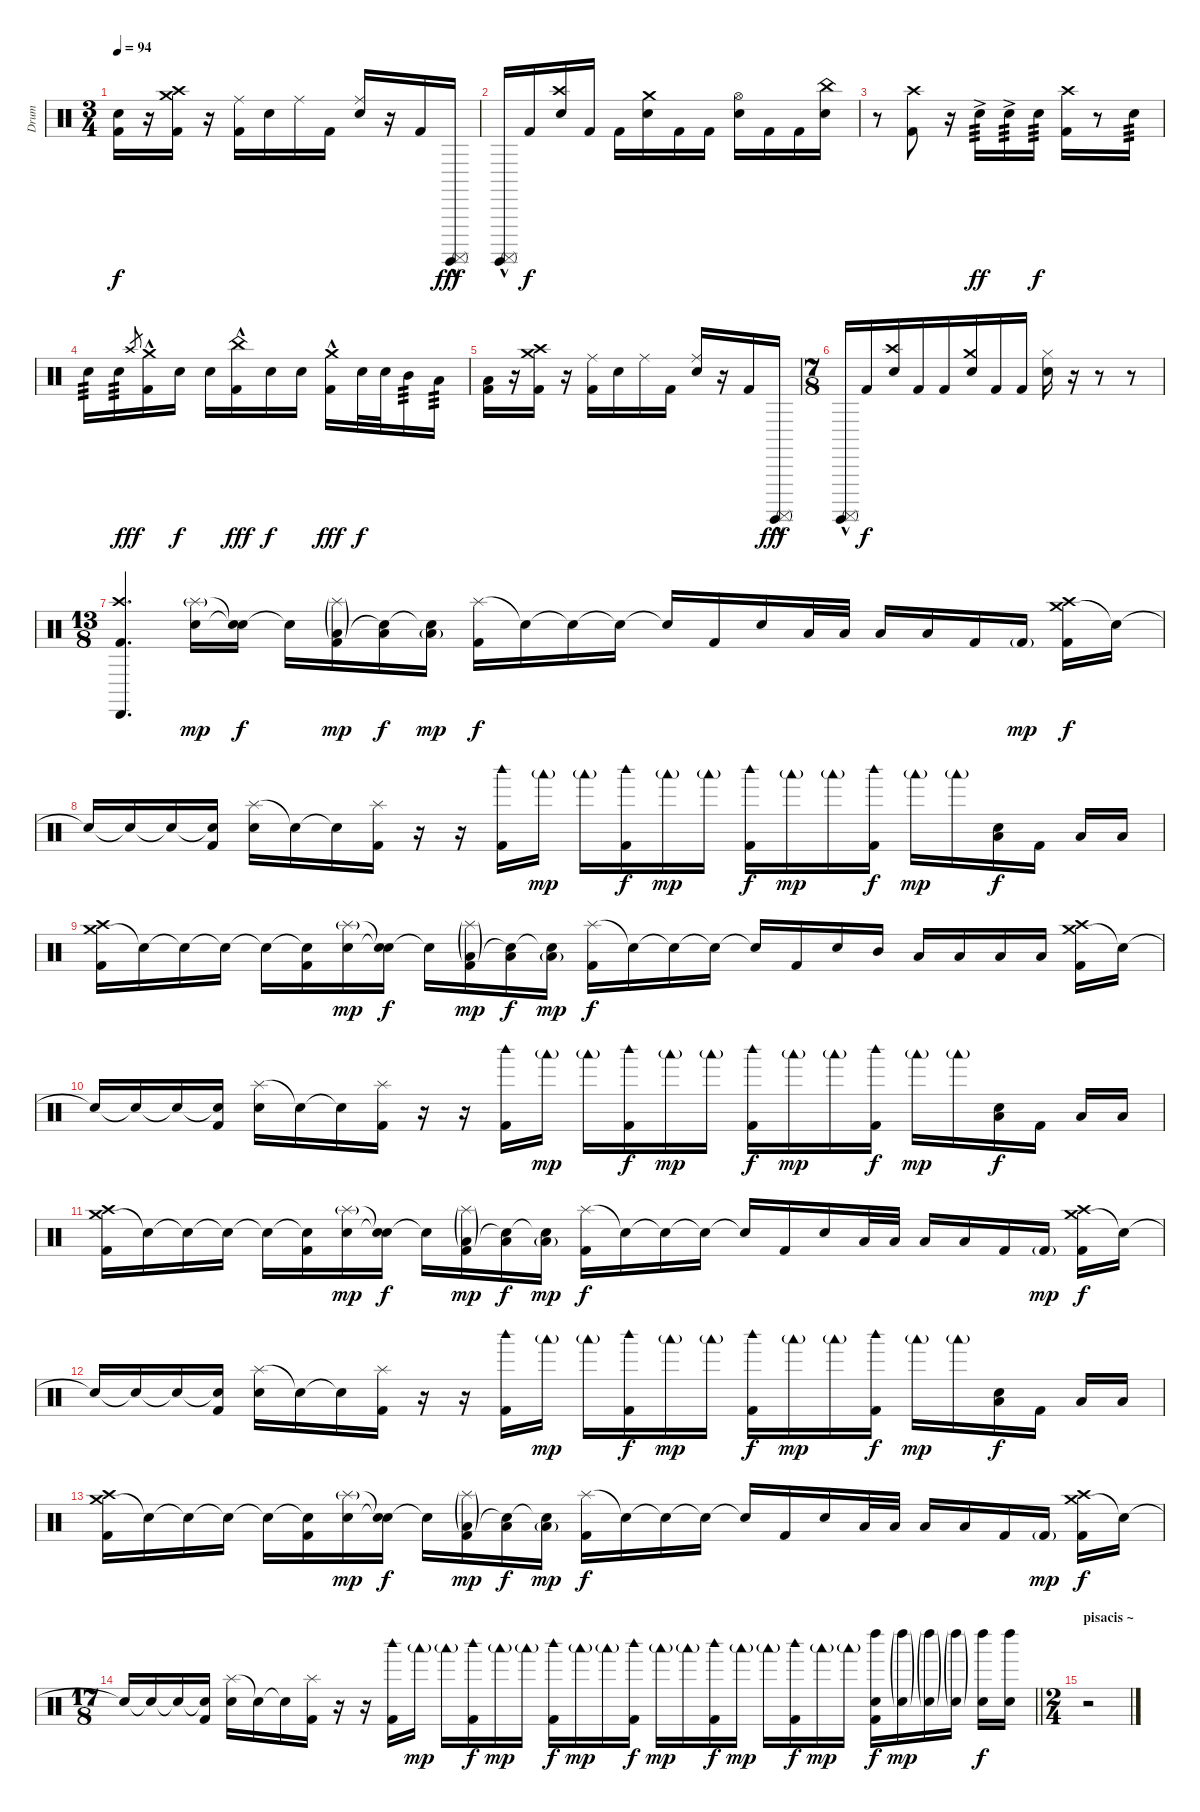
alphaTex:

\track ("Drum" "Drum") {instrument percussion}
\staff {score}
\articulation defaults
\ts (3 4)
\tempo 94
\clef neutral
\ks c
("Electric Snare (hit)" "Kick (hit) 2").16{dy f} r.16 ("Crash medium (hit)" "Crash high (hit)" "Kick (hit) 2").16 r.16 ("Ride (middle)" "Kick (hit) 2").16 "Electric Snare (hit)".16 "Ride (middle)".16 "Kick (hit) 2".16 ("Ride (middle)" "Electric Snare (hit)").16 r.16 "Kick (hit) 2".16 ("Surdo (mute)"{hac} "Surdo (hit)"{hac}).16{dy fff} |
("Surdo (mute)"{hac} "Surdo (hit)"{hac}).16 "Kick (hit) 2".16{dy f} ("Crash high (hit)" "Electric Snare (hit)").16 "Kick (hit) 2".16 "Kick (hit) 2".16 ("Crash medium (hit)" "Electric Snare (hit)").16 "Kick (hit) 2".16 "Kick (hit) 2".16 ("Hi-Hat (open)" "Electric Snare (hit)").16 "Kick (hit) 2".16 "Kick (hit) 2".16 ("China (hit)" "Electric Snare (hit)").16 |
r.8 ("Crash high (hit)" "Kick (hit) 2").8 r.16 "Electric Snare (hit)"{ac}.16{tp 3 dy ff} "Electric Snare (hit)"{ac}.16{tp 3} "Electric Snare (hit)".16{tp 3 dy f} ("Crash high (hit)" "Kick (hit) 2").16 r.8 "Electric Snare (hit)".16{tp 3} |
"Electric Snare (hit)".16{tp 3} "Electric Snare (hit)".16{tp 3} "Crash high (hit)"{x}.8{gr dy fff} ("Crash medium (hit)"{hac} "Kick (hit) 2").16 "Electric Snare (hit)".16{dy f} "Electric Snare (hit)".16 ("China (hit)"{hac} "Kick (hit) 2").16{dy fff} "Electric Snare (hit)".16{dy f} "Electric Snare (hit)".16 ("Crash medium (hit)"{hac} "Kick (hit) 2").16{dy fff} "Electric Snare (hit)".32{dy f} "Electric Snare (hit)".32 "Mid Tom (hit)".16{tp 3} "Low Tom (hit)".16{tp 3} |
("Low Tom (hit)" "Kick (hit) 2").16 r.16 ("Crash medium (hit)" "Crash high (hit)" "Kick (hit) 2").16 r.16 ("Ride (middle)" "Kick (hit) 2").16 "Electric Snare (hit)".16 "Ride (middle)".16 "Kick (hit) 2".16 ("Ride (middle)" "Electric Snare (hit)").16 r.16 "Kick (hit) 2".16 ("Surdo (mute)"{hac} "Surdo (hit)"{hac}).16{dy fff} |
\ts (7 8)
("Surdo (mute)"{hac} "Surdo (hit)"{hac}).16 "Kick (hit) 2".16{dy f} ("Crash high (hit)" "Electric Snare (hit)").16 "Kick (hit) 2".16 "Kick (hit) 2".16 ("Crash medium (hit)" "Electric Snare (hit)").16 "Kick (hit) 2".16 "Kick (hit) 2".16 ("Hi-Hat (closed)" "Electric Snare (hit)").16 r.16 r.8 r.8 |
\ts (13 8)
("Crash high (hit)" "Cabasa (hit)" "Kick (hit) 2").4{d} ("Splash (hit)"{g} "Electric Snare (hit)").16{dy mp} ("Snare (hit)"{t} "Snare (hit)"{t}).16{dy f} "Snare (hit)"{t}.16 ("Splash (hit)"{g} "Low Tom (hit)"{g} "Kick (hit) 2").16{dy mp} ("Low Tom (hit)" "Snare (hit)"{t}).16{dy f} ("Low Floor Tom (hit)"{g} "Snare (hit)"{t}).16{dy mp} ("Splash (hit)" "Kick (hit) 2").16{dy f} "Snare (hit)"{t}.16 "Snare (hit)"{t}.16 "Snare (hit)"{t}.16 "Snare (hit)"{t}.16 "Kick (hit) 2".16 "Electric Snare (hit)".16 "Low Floor Tom (hit)".32 "Low Floor Tom (hit)".32 "Low Floor Tom (hit)".16 "Low Floor Tom (hit)".16 "Kick (hit) 2".16 "Kick (hit) 2"{g}.16{dy mp} ("Crash medium (hit)" "Crash high (hit)" "Kick (hit) 2").16{dy f} "Snare (hit)"{t}.16 |
"Snare (hit)"{t}.16 "Snare (hit)"{t}.16 "Snare (hit)"{t}.16 ("Snare (hit)"{t} "Kick (hit) 2").16 ("Splash (hit)" "Electric Snare (hit)").16 "Snare (hit)"{t}.16 "Snare (hit)"{t}.16 ("Splash (hit)" "Kick (hit) 2").16 r.16 r.16 ("Woodblock high (hit)" "Kick (hit) 2").16 "Woodblock low (hit)"{g}.16{dy mp} "Woodblock low (hit)"{g}.16 ("Woodblock high (hit)" "Kick (hit) 2").16{dy f} "Woodblock low (hit)"{g}.16{dy mp} "Woodblock low (hit)"{g}.16 ("Woodblock high (hit)" "Kick (hit) 2").16{dy f} "Woodblock low (hit)"{g}.16{dy mp} "Woodblock low (hit)"{g}.16 ("Woodblock high (hit)" "Kick (hit) 2").16{dy f} "Woodblock low (hit)"{g}.16{dy mp} "Woodblock low (hit)"{g}.16 ("Low Floor Tom (hit)" "Electric Snare (hit)").16{dy f} "Kick (hit) 2".16 "Low Tom (hit)".16 "Low Floor Tom (hit)".16 |
("Crash medium (hit)" "Crash high (hit)" "Kick (hit) 2").16 "Snare (hit)"{t}.16 "Snare (hit)"{t}.16 "Snare (hit)"{t}.16 "Snare (hit)"{t}.16 ("Snare (hit)"{t} "Kick (hit) 2").16 ("Splash (hit)"{g} "Electric Snare (hit)").16{dy mp} ("Snare (hit)"{t} "Snare (hit)"{t}).16{dy f} "Snare (hit)"{t}.16 ("Splash (hit)"{g} "Low Tom (hit)"{g} "Kick (hit) 2").16{dy mp} ("Low Tom (hit)" "Snare (hit)"{t}).16{dy f} ("Low Floor Tom (hit)"{g} "Snare (hit)"{t}).16{dy mp} ("Splash (hit)" "Kick (hit) 2").16{dy f} "Snare (hit)"{t}.16 "Snare (hit)"{t}.16 "Snare (hit)"{t}.16 "Snare (hit)"{t}.16 "Kick (hit) 2".16 "Electric Snare (hit)".16 "Mid Tom (hit)".16 "Low Floor Tom (hit)".16 "Low Tom (hit)".16 "Low Floor Tom (hit)".16 "Low Floor Tom (hit)".16 ("Crash medium (hit)" "Crash high (hit)" "Kick (hit) 2").16 "Snare (hit)"{t}.16 |
"Snare (hit)"{t}.16 "Snare (hit)"{t}.16 "Snare (hit)"{t}.16 ("Snare (hit)"{t} "Kick (hit) 2").16 ("Splash (hit)" "Electric Snare (hit)").16 "Snare (hit)"{t}.16 "Snare (hit)"{t}.16 ("Splash (hit)" "Kick (hit) 2").16 r.16 r.16 ("Woodblock high (hit)" "Kick (hit) 2").16 "Woodblock low (hit)"{g}.16{dy mp} "Woodblock low (hit)"{g}.16 ("Woodblock high (hit)" "Kick (hit) 2").16{dy f} "Woodblock low (hit)"{g}.16{dy mp} "Woodblock low (hit)"{g}.16 ("Woodblock high (hit)" "Kick (hit) 2").16{dy f} "Woodblock low (hit)"{g}.16{dy mp} "Woodblock low (hit)"{g}.16 ("Woodblock high (hit)" "Kick (hit) 2").16{dy f} "Woodblock low (hit)"{g}.16{dy mp} "Woodblock low (hit)"{g}.16 ("Low Floor Tom (hit)" "Electric Snare (hit)").16{dy f} "Kick (hit) 2".16 "Low Tom (hit)".16 "Low Floor Tom (hit)".16 |
("Crash medium (hit)" "Crash high (hit)" "Kick (hit) 2").16 "Snare (hit)"{t}.16 "Snare (hit)"{t}.16 "Snare (hit)"{t}.16 "Snare (hit)"{t}.16 ("Snare (hit)"{t} "Kick (hit) 2").16 ("Splash (hit)"{g} "Electric Snare (hit)").16{dy mp} ("Snare (hit)"{t} "Snare (hit)"{t}).16{dy f} "Snare (hit)"{t}.16 ("Splash (hit)"{g} "Low Tom (hit)"{g} "Kick (hit) 2").16{dy mp} ("Low Tom (hit)" "Snare (hit)"{t}).16{dy f} ("Low Floor Tom (hit)"{g} "Snare (hit)"{t}).16{dy mp} ("Splash (hit)" "Kick (hit) 2").16{dy f} "Snare (hit)"{t}.16 "Snare (hit)"{t}.16 "Snare (hit)"{t}.16 "Snare (hit)"{t}.16 "Kick (hit) 2".16 "Electric Snare (hit)".16 "Low Floor Tom (hit)".32 "Low Floor Tom (hit)".32 "Low Floor Tom (hit)".16 "Low Floor Tom (hit)".16 "Kick (hit) 2".16 "Kick (hit) 2"{g}.16{dy mp} ("Crash medium (hit)" "Crash high (hit)" "Kick (hit) 2").16{dy f} "Snare (hit)"{t}.16 |
"Snare (hit)"{t}.16 "Snare (hit)"{t}.16 "Snare (hit)"{t}.16 ("Snare (hit)"{t} "Kick (hit) 2").16 ("Splash (hit)" "Electric Snare (hit)").16 "Snare (hit)"{t}.16 "Snare (hit)"{t}.16 ("Splash (hit)" "Kick (hit) 2").16 r.16 r.16 ("Woodblock high (hit)" "Kick (hit) 2").16 "Woodblock low (hit)"{g}.16{dy mp} "Woodblock low (hit)"{g}.16 ("Woodblock high (hit)" "Kick (hit) 2").16{dy f} "Woodblock low (hit)"{g}.16{dy mp} "Woodblock low (hit)"{g}.16 ("Woodblock high (hit)" "Kick (hit) 2").16{dy f} "Woodblock low (hit)"{g}.16{dy mp} "Woodblock low (hit)"{g}.16 ("Woodblock high (hit)" "Kick (hit) 2").16{dy f} "Woodblock low (hit)"{g}.16{dy mp} "Woodblock low (hit)"{g}.16 ("Low Floor Tom (hit)" "Electric Snare (hit)").16{dy f} "Kick (hit) 2".16 "Low Tom (hit)".16 "Low Floor Tom (hit)".16 |
("Crash medium (hit)" "Crash high (hit)" "Kick (hit) 2").16 "Snare (hit)"{t}.16 "Snare (hit)"{t}.16 "Snare (hit)"{t}.16 "Snare (hit)"{t}.16 ("Snare (hit)"{t} "Kick (hit) 2").16 ("Splash (hit)"{g} "Electric Snare (hit)").16{dy mp} ("Snare (hit)"{t} "Snare (hit)"{t}).16{dy f} "Snare (hit)"{t}.16 ("Splash (hit)"{g} "Low Tom (hit)"{g} "Kick (hit) 2").16{dy mp} ("Low Tom (hit)" "Snare (hit)"{t}).16{dy f} ("Low Floor Tom (hit)"{g} "Snare (hit)"{t}).16{dy mp} ("Splash (hit)" "Kick (hit) 2").16{dy f} "Snare (hit)"{t}.16 "Snare (hit)"{t}.16 "Snare (hit)"{t}.16 "Snare (hit)"{t}.16 "Kick (hit) 2".16 "Electric Snare (hit)".16 "Low Floor Tom (hit)".32 "Low Floor Tom (hit)".32 "Low Floor Tom (hit)".16 "Low Floor Tom (hit)".16 "Kick (hit) 2".16 "Kick (hit) 2"{g}.16{dy mp} ("Crash medium (hit)" "Crash high (hit)" "Kick (hit) 2").16{dy f} "Snare (hit)"{t}.16 |
\ts (17 8)
\barLineRight lightlight "Snare (hit)"{t}.16 "Snare (hit)"{t}.16 "Snare (hit)"{t}.16
("Snare (hit)"{t} "Kick (hit) 2").16 ("Splash (hit)" "Electric Snare (hit)").16 "Snare (hit)"{t}.16 "Snare (hit)"{t}.16 ("Splash (hit)" "Kick (hit) 2").16 r.16 r.16 ("Woodblock high (hit)" "Kick (hit) 2").16 "Woodblock low (hit)"{g}.16{dy mp} "Woodblock low (hit)"{g}.16 ("Woodblock high (hit)" "Kick (hit) 2").16{dy f} "Woodblock low (hit)"{g}.16{dy mp} "Woodblock low (hit)"{g}.16 ("Woodblock high (hit)" "Kick (hit) 2").16{dy f} "Woodblock low (hit)"{g}.16{dy mp} "Woodblock low (hit)"{g}.16 ("Woodblock high (hit)" "Kick (hit) 2").16{dy f} "Woodblock low (hit)"{g}.16{dy mp} "Woodblock low (hit)"{g}.16 ("Woodblock high (hit)" "Kick (hit) 2").16{dy f} "Woodblock low (hit)"{g}.16{dy mp} "Woodblock low (hit)"{g}.16 ("Woodblock high (hit)" "Kick (hit) 2").16{dy f} "Woodblock low (hit)"{g}.16{dy mp} "Woodblock low (hit)"{g}.16 ("Left Maraca (hit)" "Electric Snare (hit)" "Kick (hit) 2").16{dy f} ("Left Maraca (hit)"{g} "Electric Snare (hit)"{g}).16{dy mp} ("Left Maraca (hit)"{g} "Electric Snare (hit)"{g}).16 ("Left Maraca (hit)"{g} "Electric Snare (hit)"{g}).16 ("Left Maraca (hit)" "Electric Snare (hit)").16{dy f} ("Left Maraca (hit)" "Electric Snare (hit)").16 |
\ts (2 4)
\section ("" "pisacis ~")
r.2
